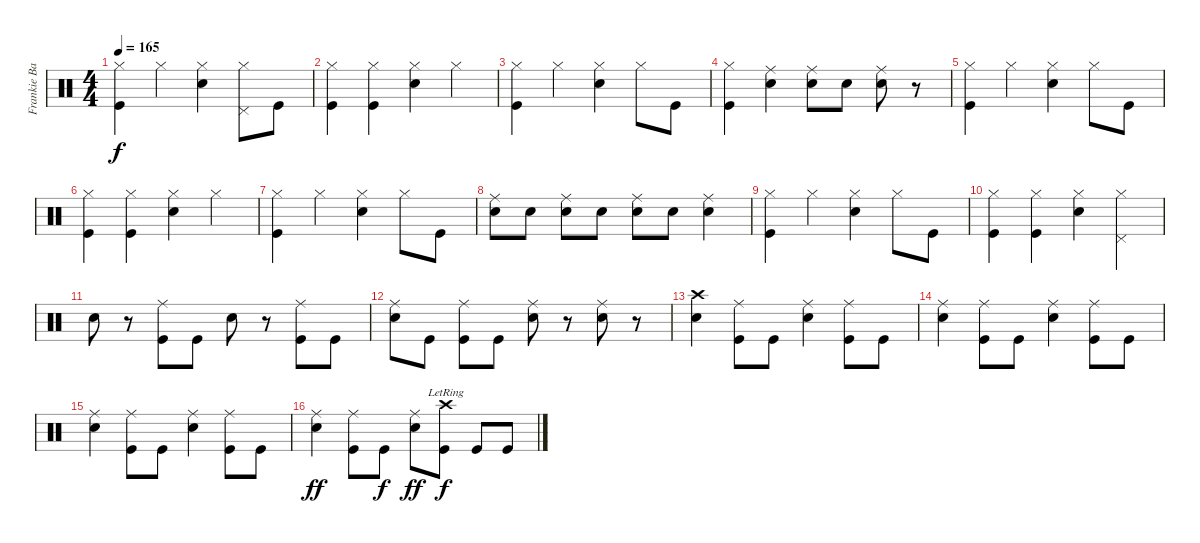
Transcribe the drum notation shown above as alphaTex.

\track ("Frankie Banali/Drums" "Frankie Ba") {instrument percussion}
\staff {score}
\articulation defaults
\ts (4 4)
\tempo 165
\clef neutral
\ks c
("Kick (hit)" "Hi-Hat (closed)").4{dy f} "Hi-Hat (closed)".4 ("Snare (hit) 2" "Hi-Hat (closed)").4 ("Pedal Hi-Hat (hit)" "Hi-Hat (closed)").8 "Kick (hit)".8 |
("Kick (hit)" "Hi-Hat (closed)").4 ("Kick (hit)" "Hi-Hat (closed)").4 ("Snare (hit) 2" "Hi-Hat (closed)").4 "Hi-Hat (closed)".4 |
("Kick (hit)" "Hi-Hat (closed)").4 "Hi-Hat (closed)".4 ("Snare (hit) 2" "Hi-Hat (closed)").4 "Hi-Hat (closed)".8 "Kick (hit)".8 |
("Kick (hit)" "Hi-Hat (closed)").4 ("Snare (hit) 2" "Ride (middle)").4 ("Snare (hit) 2" "Ride (middle)").8 "Snare (hit) 2".8 ("Snare (hit) 2" "Ride (middle)").8 r.8 |
("Kick (hit)" "Hi-Hat (closed)").4 "Hi-Hat (closed)".4 ("Snare (hit) 2" "Hi-Hat (closed)").4 "Hi-Hat (closed)".8 "Kick (hit)".8 |
("Kick (hit)" "Hi-Hat (closed)").4 ("Kick (hit)" "Hi-Hat (closed)").4 ("Snare (hit) 2" "Hi-Hat (closed)").4 "Hi-Hat (closed)".4 |
("Kick (hit)" "Hi-Hat (closed)").4 "Hi-Hat (closed)".4 ("Snare (hit) 2" "Hi-Hat (closed)").4 "Hi-Hat (closed)".8 "Kick (hit)".8 |
("Snare (hit) 2" "Ride (middle)").8 "Snare (hit) 2".8 ("Snare (hit) 2" "Ride (middle)").8 "Snare (hit) 2".8 ("Snare (hit) 2" "Ride (middle)").8 "Snare (hit) 2".8 ("Snare (hit) 2" "Ride (middle)").4 |
("Kick (hit)" "Hi-Hat (closed)").4 "Hi-Hat (closed)".4 ("Snare (hit) 2" "Hi-Hat (closed)").4 "Hi-Hat (closed)".8 "Kick (hit)".8 |
("Kick (hit)" "Hi-Hat (closed)").4 ("Kick (hit)" "Hi-Hat (closed)").4 ("Snare (hit) 2" "Hi-Hat (closed)").4 ("Pedal Hi-Hat (hit)" "Hi-Hat (closed)").4 |
"Snare (hit) 2".8 r.8 ("Kick (hit)" "Ride (middle)").8 "Kick (hit)".8 "Snare (hit) 2".8 r.8 ("Kick (hit)" "Ride (middle)").8 "Kick (hit)".8 |
("Snare (hit) 2" "Ride (middle)").8 "Kick (hit)".8 ("Kick (hit)" "Ride (middle)").8 "Kick (hit)".8 ("Snare (hit) 2" "Ride (middle)").8 r.8 ("Snare (hit) 2" "Ride (middle)").8 r.8 |
("Snare (hit) 2" "Crash high (hit)").4 ("Kick (hit)" "Ride (middle)").8 "Kick (hit)".8 ("Snare (hit) 2" "Ride (middle)").4 ("Kick (hit)" "Ride (middle)").8 "Kick (hit)".8 |
("Snare (hit) 2" "Ride (middle)").4 ("Kick (hit)" "Ride (middle)").8 "Kick (hit)".8 ("Snare (hit) 2" "Ride (middle)").4 ("Kick (hit)" "Ride (middle)").8 "Kick (hit)".8 |
("Snare (hit) 2" "Ride (middle)").4 ("Kick (hit)" "Ride (middle)").8 "Kick (hit)".8 ("Snare (hit) 2" "Ride (middle)").4 ("Kick (hit)" "Ride (middle)").8 "Kick (hit)".8 |
("Snare (hit) 2" "Ride (middle)").4{dy ff} ("Kick (hit)" "Ride (middle)").8 "Kick (hit)".8{dy f} ("Snare (hit) 2" "Ride (middle)").8{dy ff} ("Kick (hit)" "Crash high (hit)"{lr}).8{dy f} "Kick (hit)".8 "Kick (hit)".8
